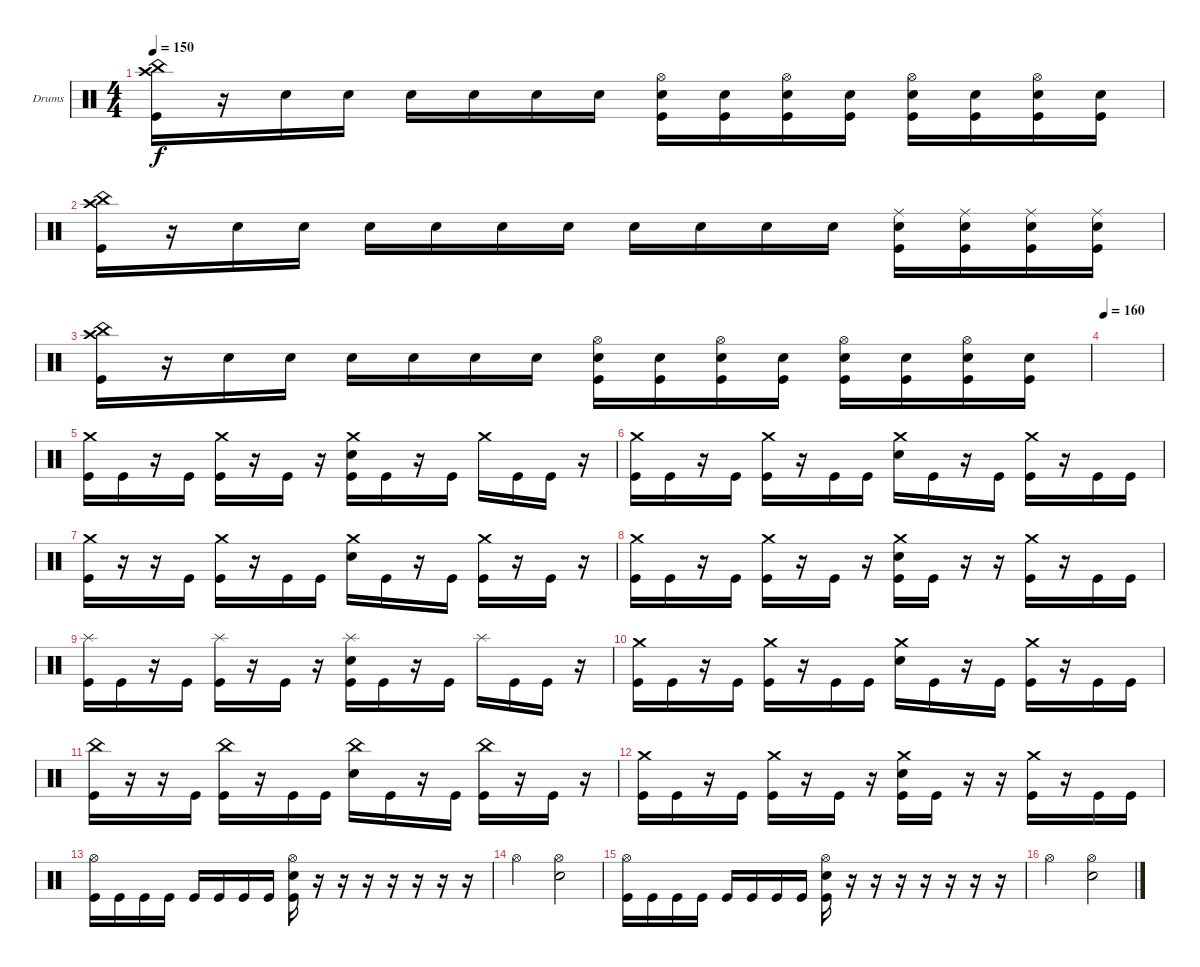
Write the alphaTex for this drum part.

\defaultSystemsLayout 4
\bracketExtendMode groupsimilarinstruments
\firstSystemTrackNameOrientation horizontal
\otherSystemsTrackNameOrientation horizontal
\track ("Drumkit" "Drums") {instrument percussion}
\staff {score}
\articulation defaults
\ts (4 4)
\tempo 150
\clef neutral
\ks c
("Kick (hit)" "Crash high (hit)" "China (hit)").16{dy f} r.16 "Snare (hit) 2".16 "Snare (hit) 2".16 "Snare (hit) 2".16 "Snare (hit) 2".16 "Snare (hit) 2".16 "Snare (hit) 2".16 ("Kick (hit)" "Snare (hit) 2" "Hi-Hat (open)").16 ("Kick (hit)" "Snare (hit) 2").16 ("Kick (hit)" "Snare (hit) 2" "Hi-Hat (open)").16 ("Kick (hit)" "Snare (hit) 2").16 ("Kick (hit)" "Snare (hit) 2" "Hi-Hat (open)").16 ("Kick (hit)" "Snare (hit) 2").16 ("Kick (hit)" "Snare (hit) 2" "Hi-Hat (open)").16 ("Kick (hit)" "Snare (hit) 2").16 |
("Kick (hit)" "Crash high (hit)" "China (hit)").16 r.16 "Snare (hit) 2".16 "Snare (hit) 2".16 "Snare (hit) 2".16 "Snare (hit) 2".16 "Snare (hit) 2".16 "Snare (hit) 2".16 "Snare (hit) 2".16 "Snare (hit) 2".16 "Snare (hit) 2".16 "Snare (hit) 2".16 ("Kick (hit)" "Snare (hit) 2" "Ride (middle)").16 ("Kick (hit)" "Snare (hit) 2" "Ride (middle)").16 ("Kick (hit)" "Snare (hit) 2" "Ride (middle)").16 ("Kick (hit)" "Snare (hit) 2" "Ride (middle)").16 |
("Kick (hit)" "Crash high (hit)" "China (hit)").16 r.16 "Snare (hit) 2".16 "Snare (hit) 2".16 "Snare (hit) 2".16 "Snare (hit) 2".16 "Snare (hit) 2".16 "Snare (hit) 2".16 ("Kick (hit)" "Snare (hit) 2" "Hi-Hat (open)").16 ("Kick (hit)" "Snare (hit) 2").16 ("Kick (hit)" "Snare (hit) 2" "Hi-Hat (open)").16 ("Kick (hit)" "Snare (hit) 2").16 ("Kick (hit)" "Snare (hit) 2" "Hi-Hat (open)").16 ("Kick (hit)" "Snare (hit) 2").16 ("Kick (hit)" "Snare (hit) 2" "Hi-Hat (open)").16 ("Kick (hit)" "Snare (hit) 2").16 |
\tempo 160
|
("Crash medium (hit)" "Kick (hit)").16 "Kick (hit)".16 r.16 "Kick (hit)".16 ("Crash medium (hit)" "Kick (hit)").16 r.16 "Kick (hit)".16 r.16 ("Crash medium (hit)" "Snare (hit) 2" "Kick (hit)").16 "Kick (hit)".16 r.16 "Kick (hit)".16 "Crash medium (hit)".16 "Kick (hit)".16 "Kick (hit)".16 r.16 |
("Crash medium (hit)" "Kick (hit)").16 "Kick (hit)".16 r.16 "Kick (hit)".16 ("Crash medium (hit)" "Kick (hit)").16 r.16 "Kick (hit)".16 "Kick (hit)".16 ("Crash medium (hit)" "Snare (hit) 2").16 "Kick (hit)".16 r.16 "Kick (hit)".16 ("Crash medium (hit)" "Kick (hit)").16 r.16 "Kick (hit)".16 "Kick (hit)".16 |
("Crash medium (hit)" "Kick (hit)").16 r.16 r.16 "Kick (hit)".16 ("Crash medium (hit)" "Kick (hit)").16 r.16 "Kick (hit)".16 "Kick (hit)".16 ("Crash medium (hit)" "Snare (hit) 2").16 "Kick (hit)".16 r.16 "Kick (hit)".16 ("Crash medium (hit)" "Kick (hit)").16 r.16 "Kick (hit)".16 r.16 |
("Crash medium (hit)" "Kick (hit)").16 "Kick (hit)".16 r.16 "Kick (hit)".16 ("Crash medium (hit)" "Kick (hit)").16 r.16 "Kick (hit)".16 r.16 ("Crash medium (hit)" "Snare (hit) 2" "Kick (hit)").16 "Kick (hit)".16 r.16 r.16 ("Crash medium (hit)" "Kick (hit)").16 r.16 "Kick (hit)".16 "Kick (hit)".16 |
("Kick (hit)" "Splash (hit)").16 "Kick (hit)".16 r.16 "Kick (hit)".16 ("Kick (hit)" "Splash (hit)").16 r.16 "Kick (hit)".16 r.16 ("Snare (hit) 2" "Kick (hit)" "Splash (hit)").16 "Kick (hit)".16 r.16 "Kick (hit)".16 "Splash (hit)".16 "Kick (hit)".16 "Kick (hit)".16 r.16 |
("Crash medium (hit)" "Kick (hit)").16 "Kick (hit)".16 r.16 "Kick (hit)".16 ("Crash medium (hit)" "Kick (hit)").16 r.16 "Kick (hit)".16 "Kick (hit)".16 ("Crash medium (hit)" "Snare (hit) 2").16 "Kick (hit)".16 r.16 "Kick (hit)".16 ("Crash medium (hit)" "Kick (hit)").16 r.16 "Kick (hit)".16 "Kick (hit)".16 |
("Kick (hit)" "China (hit)").16 r.16 r.16 "Kick (hit)".16 ("Kick (hit)" "China (hit)").16 r.16 "Kick (hit)".16 "Kick (hit)".16 ("Snare (hit) 2" "China (hit)").16 "Kick (hit)".16 r.16 "Kick (hit)".16 ("Kick (hit)" "China (hit)").16 r.16 "Kick (hit)".16 r.16 |
("Crash medium (hit)" "Kick (hit)").16 "Kick (hit)".16 r.16 "Kick (hit)".16 ("Crash medium (hit)" "Kick (hit)").16 r.16 "Kick (hit)".16 r.16 ("Crash medium (hit)" "Snare (hit) 2" "Kick (hit)").16 "Kick (hit)".16 r.16 r.16 ("Crash medium (hit)" "Kick (hit)").16 r.16 "Kick (hit)".16 "Kick (hit)".16 |
("Kick (hit)" "Hi-Hat (open)").16 "Kick (hit)".16 "Kick (hit)".16 "Kick (hit)".16 "Kick (hit)".16 "Kick (hit)".16 "Kick (hit)".16 "Kick (hit)".16 ("Kick (hit)" "Hi-Hat (open)" "Snare (hit) 2").16 r.16 r.16 r.16 r.16 r.16 r.16 r.16 |
"Hi-Hat (open)".2 ("Hi-Hat (open)" "Snare (hit) 2").2 |
("Kick (hit)" "Hi-Hat (open)").16 "Kick (hit)".16 "Kick (hit)".16 "Kick (hit)".16 "Kick (hit)".16 "Kick (hit)".16 "Kick (hit)".16 "Kick (hit)".16 ("Kick (hit)" "Hi-Hat (open)" "Snare (hit) 2").16 r.16 r.16 r.16 r.16 r.16 r.16 r.16 |
"Hi-Hat (open)".2 ("Hi-Hat (open)" "Snare (hit) 2").2
